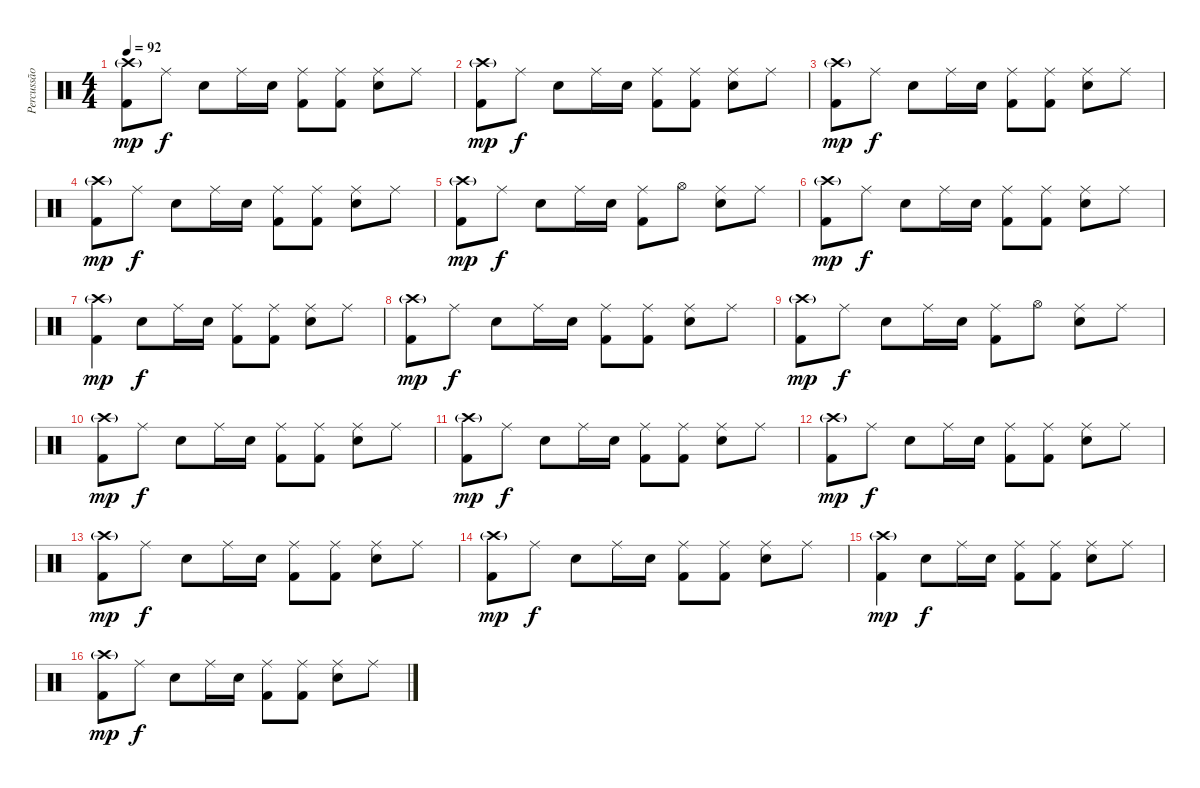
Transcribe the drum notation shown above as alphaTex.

\track ("Percussão - Drums" "Percussão ") {instrument percussion}
\staff {score}
\articulation defaults
\ts (4 4)
\tempo 92
\clef neutral
\ks c
("Crash high (hit)"{g} "Kick (hit) 2").8{dy mp} "Ride (middle)".8{dy f} "Snare (hit) 2".8 "Ride (middle)".16 "Snare (hit) 2".16 ("Ride (middle)" "Kick (hit) 2").8 ("Ride (middle)" "Kick (hit) 2").8 ("Ride (middle)" "Snare (hit) 2").8 "Ride (middle)".8 |
("Crash high (hit)"{g} "Kick (hit) 2").8{dy mp} "Ride (middle)".8{dy f} "Snare (hit) 2".8 "Ride (middle)".16 "Snare (hit) 2".16 ("Ride (middle)" "Kick (hit) 2").8 ("Ride (middle)" "Kick (hit) 2").8 ("Ride (middle)" "Snare (hit) 2").8 "Ride (middle)".8 |
("Crash high (hit)"{g} "Kick (hit) 2").8{dy mp} "Ride (middle)".8{dy f} "Snare (hit) 2".8 "Ride (middle)".16 "Snare (hit) 2".16 ("Ride (middle)" "Kick (hit) 2").8 ("Ride (middle)" "Kick (hit) 2").8 ("Ride (middle)" "Snare (hit) 2").8 "Ride (middle)".8 |
("Crash high (hit)"{g} "Kick (hit) 2").8{dy mp} "Ride (middle)".8{dy f} "Snare (hit) 2".8 "Ride (middle)".16 "Snare (hit) 2".16 ("Ride (middle)" "Kick (hit) 2").8 ("Ride (middle)" "Kick (hit) 2").8 ("Ride (middle)" "Snare (hit) 2").8 "Ride (middle)".8 |
("Crash high (hit)"{g} "Kick (hit) 2").8{dy mp} "Ride (middle)".8{dy f} "Snare (hit) 2".8 "Ride (middle)".16 "Snare (hit) 2".16 ("Ride (middle)" "Kick (hit) 2").8 "Hi-Hat (open)".8 ("Ride (middle)" "Snare (hit) 2").8 "Ride (middle)".8 |
("Crash high (hit)"{g} "Kick (hit) 2").8{dy mp} "Ride (middle)".8{dy f} "Snare (hit) 2".8 "Ride (middle)".16 "Snare (hit) 2".16 ("Ride (middle)" "Kick (hit) 2").8 ("Ride (middle)" "Kick (hit) 2").8 ("Ride (middle)" "Snare (hit) 2").8 "Ride (middle)".8 |
("Crash high (hit)"{g} "Kick (hit) 2").4{dy mp} "Snare (hit) 2".8{dy f} "Ride (middle)".16 "Snare (hit) 2".16 ("Ride (middle)" "Kick (hit) 2").8 ("Ride (middle)" "Kick (hit) 2").8 ("Ride (middle)" "Snare (hit) 2").8 "Ride (middle)".8 |
("Crash high (hit)"{g} "Kick (hit) 2").8{dy mp} "Ride (middle)".8{dy f} "Snare (hit) 2".8 "Ride (middle)".16 "Snare (hit) 2".16 ("Ride (middle)" "Kick (hit) 2").8 ("Ride (middle)" "Kick (hit) 2").8 ("Ride (middle)" "Snare (hit) 2").8 "Ride (middle)".8 |
("Crash high (hit)"{g} "Kick (hit) 2").8{dy mp} "Ride (middle)".8{dy f} "Snare (hit) 2".8 "Ride (middle)".16 "Snare (hit) 2".16 ("Ride (middle)" "Kick (hit) 2").8 "Hi-Hat (open)".8 ("Ride (middle)" "Snare (hit) 2").8 "Ride (middle)".8 |
("Crash high (hit)"{g} "Kick (hit) 2").8{dy mp} "Ride (middle)".8{dy f} "Snare (hit) 2".8 "Ride (middle)".16 "Snare (hit) 2".16 ("Ride (middle)" "Kick (hit) 2").8 ("Ride (middle)" "Kick (hit) 2").8 ("Ride (middle)" "Snare (hit) 2").8 "Ride (middle)".8 |
("Crash high (hit)"{g} "Kick (hit) 2").8{dy mp} "Ride (middle)".8{dy f} "Snare (hit) 2".8 "Ride (middle)".16 "Snare (hit) 2".16 ("Ride (middle)" "Kick (hit) 2").8 ("Ride (middle)" "Kick (hit) 2").8 ("Ride (middle)" "Snare (hit) 2").8 "Ride (middle)".8 |
("Crash high (hit)"{g} "Kick (hit) 2").8{dy mp} "Ride (middle)".8{dy f} "Snare (hit) 2".8 "Ride (middle)".16 "Snare (hit) 2".16 ("Ride (middle)" "Kick (hit) 2").8 ("Ride (middle)" "Kick (hit) 2").8 ("Ride (middle)" "Snare (hit) 2").8 "Ride (middle)".8 |
("Crash high (hit)"{g} "Kick (hit) 2").8{dy mp} "Ride (middle)".8{dy f} "Snare (hit) 2".8 "Ride (middle)".16 "Snare (hit) 2".16 ("Ride (middle)" "Kick (hit) 2").8 ("Ride (middle)" "Kick (hit) 2").8 ("Ride (middle)" "Snare (hit) 2").8 "Ride (middle)".8 |
("Crash high (hit)"{g} "Kick (hit) 2").8{dy mp} "Ride (middle)".8{dy f} "Snare (hit) 2".8 "Ride (middle)".16 "Snare (hit) 2".16 ("Ride (middle)" "Kick (hit) 2").8 ("Ride (middle)" "Kick (hit) 2").8 ("Ride (middle)" "Snare (hit) 2").8 "Ride (middle)".8 |
("Crash high (hit)"{g} "Kick (hit) 2").4{dy mp} "Snare (hit) 2".8{dy f} "Ride (middle)".16 "Snare (hit) 2".16 ("Ride (middle)" "Kick (hit) 2").8 ("Ride (middle)" "Kick (hit) 2").8 ("Ride (middle)" "Snare (hit) 2").8 "Ride (middle)".8 |
("Crash high (hit)"{g} "Kick (hit) 2").8{dy mp} "Ride (middle)".8{dy f} "Snare (hit) 2".8 "Ride (middle)".16 "Snare (hit) 2".16 ("Ride (middle)" "Kick (hit) 2").8 ("Ride (middle)" "Kick (hit) 2").8 ("Ride (middle)" "Snare (hit) 2").8 "Ride (middle)".8
